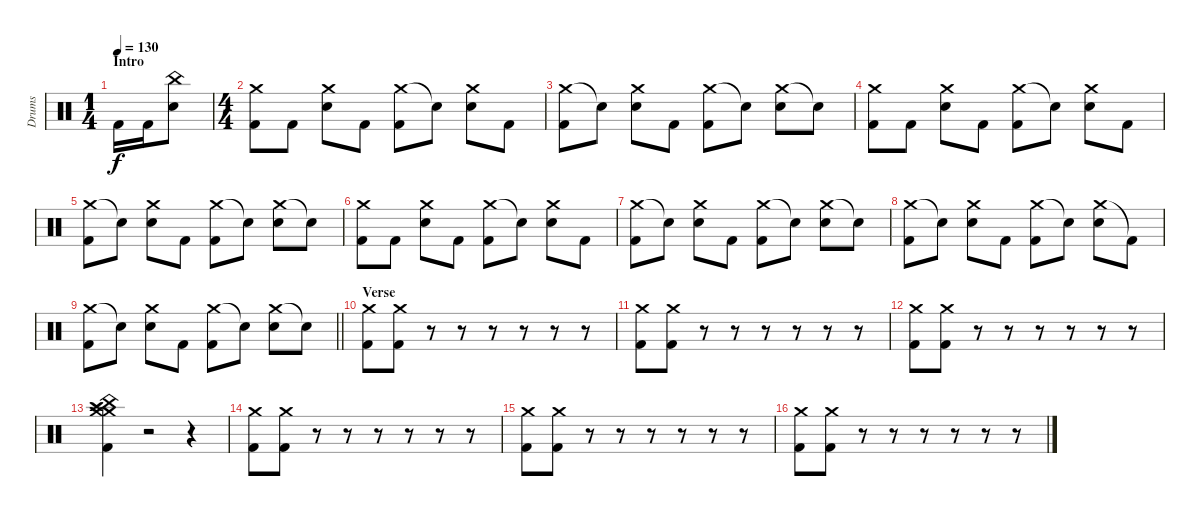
\track ("Drums" "Drums") {instrument percussion}
\staff {score}
\articulation defaults
\ts (1 4)
\section ("" "Intro")
\tempo 130
\clef neutral
\ks c "Kick (hit) 2".16{dy f balance 0} "Kick (hit) 2".16{balance 16}
("China (hit)" "Electric Snare (hit)").8{balance 8} |
\ts (4 4)
("Crash medium (hit)" "Kick (hit) 2").8 "Kick (hit) 2".8 ("Crash medium (hit)" "Electric Snare (hit)").8 "Kick (hit) 2".8 ("Crash medium (hit)" "Kick (hit) 2").8 "Snare (hit)"{t}.8 ("Crash medium (hit)" "Electric Snare (hit)").8 "Kick (hit) 2".8 |
("Crash medium (hit)" "Kick (hit) 2").8 "Snare (hit)"{t}.8 ("Crash medium (hit)" "Electric Snare (hit)").8 "Kick (hit) 2".8 ("Crash medium (hit)" "Kick (hit) 2").8 "Snare (hit)"{t}.8 ("Crash medium (hit)" "Electric Snare (hit)").8 "Snare (hit)"{t}.8 |
("Crash medium (hit)" "Kick (hit) 2").8 "Kick (hit) 2".8 ("Crash medium (hit)" "Electric Snare (hit)").8 "Kick (hit) 2".8 ("Crash medium (hit)" "Kick (hit) 2").8 "Snare (hit)"{t}.8 ("Crash medium (hit)" "Electric Snare (hit)").8 "Kick (hit) 2".8 |
("Crash medium (hit)" "Kick (hit) 2").8 "Snare (hit)"{t}.8 ("Crash medium (hit)" "Electric Snare (hit)").8 "Kick (hit) 2".8 ("Crash medium (hit)" "Kick (hit) 2").8 "Snare (hit)"{t}.8 ("Crash medium (hit)" "Electric Snare (hit)").8 "Snare (hit)"{t}.8 |
("Crash medium (hit)" "Kick (hit) 2").8 "Kick (hit) 2".8 ("Crash medium (hit)" "Electric Snare (hit)").8 "Kick (hit) 2".8 ("Crash medium (hit)" "Kick (hit) 2").8 "Snare (hit)"{t}.8 ("Crash medium (hit)" "Electric Snare (hit)").8 "Kick (hit) 2".8 |
("Crash medium (hit)" "Kick (hit) 2").8 "Snare (hit)"{t}.8 ("Crash medium (hit)" "Electric Snare (hit)").8 "Kick (hit) 2".8 ("Crash medium (hit)" "Kick (hit) 2").8 "Snare (hit)"{t}.8 ("Crash medium (hit)" "Electric Snare (hit)").8 "Snare (hit)"{t}.8 |
("Crash medium (hit)" "Kick (hit) 2").8 "Snare (hit)"{t}.8 ("Crash medium (hit)" "Electric Snare (hit)").8 "Kick (hit) 2".8 ("Crash medium (hit)" "Kick (hit) 2").8 "Snare (hit)"{t}.8 ("Crash medium (hit)" "Electric Snare (hit)").8 "Kick (hit) 2"{t}.8 |
\barLineRight lightlight
("Crash medium (hit)" "Kick (hit) 2").8 "Electric Snare (hit)"{t}.8 ("Crash medium (hit)" "Electric Snare (hit)").8 "Kick (hit) 2".8 ("Crash medium (hit)" "Kick (hit) 2").8 "Electric Snare (hit)"{t}.8 ("Crash medium (hit)" "Electric Snare (hit)").8 "Snare (hit)"{t}.8 |
\section ("" "Verse")
("Crash medium (hit)" "Kick (hit) 2").8{balance 0} ("Crash medium (hit)" "Kick (hit) 2").8{balance 16} r.8 r.8 r.8 r.8 r.8 r.8 |
("Crash medium (hit)" "Kick (hit) 2").8{balance 0} ("Crash medium (hit)" "Kick (hit) 2").8{balance 16} r.8 r.8 r.8 r.8 r.8 r.8 |
("Crash medium (hit)" "Kick (hit) 2").8{balance 0} ("Crash medium (hit)" "Kick (hit) 2").8{balance 16} r.8 r.8 r.8 r.8 r.8 r.8 |
("Crash medium (hit)" "Splash (hit)" "China (hit)" "Crash high (hit)" "Crash medium (hit)" "Kick (hit) 2").4{balance 8} r.2 r.4 |
("Crash medium (hit)" "Kick (hit) 2").8 ("Crash medium (hit)" "Kick (hit) 2").8 r.8 r.8 r.8 r.8 r.8 r.8 |
("Crash medium (hit)" "Kick (hit) 2").8 ("Crash medium (hit)" "Kick (hit) 2").8 r.8 r.8 r.8 r.8 r.8 r.8 |
("Crash medium (hit)" "Kick (hit) 2").8 ("Crash medium (hit)" "Kick (hit) 2").8 r.8 r.8 r.8 r.8 r.8 r.8
